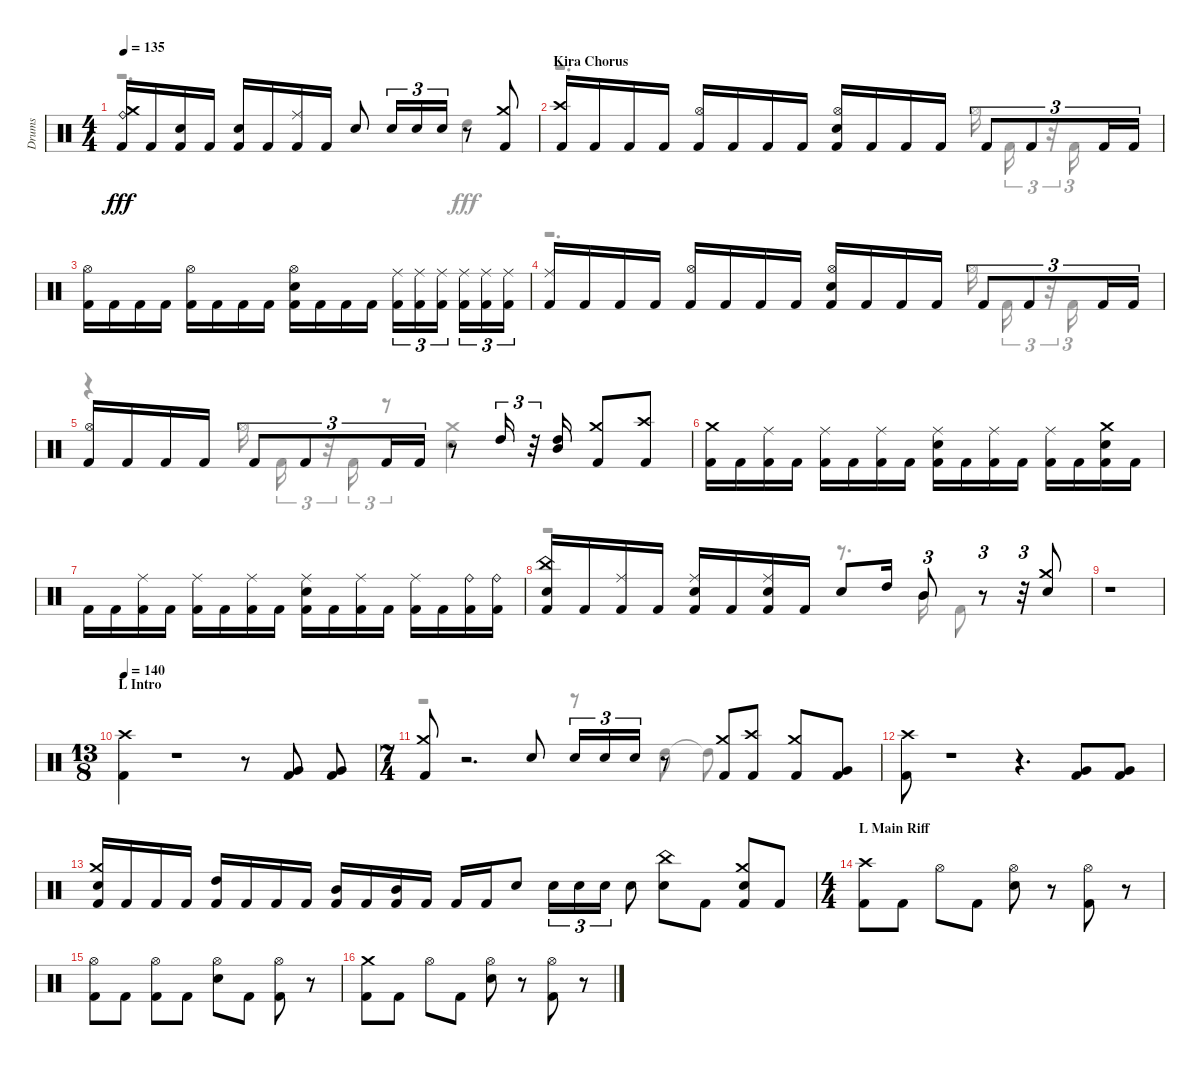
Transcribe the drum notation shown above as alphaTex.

\track ("Drums" "Drums") {instrument percussion}
\staff {score}
\articulation defaults
\voice
\ts (4 4)
\tempo 135
\clef neutral
\ks aminor
("Ride (bell)" "Kick (hit) 2" "Crash medium (hit)").16{dy fff} "Kick (hit) 2".16 ("Kick (hit) 2" "Snare (hit) 2").16 "Kick (hit) 2".16 ("Snare (hit) 2" "Kick (hit) 2").16 "Kick (hit) 2".16 ("Kick (hit) 2" "Ride (middle)").16 "Kick (hit) 2".16 "Snare (hit) 2".8 "Snare (hit) 2".16{tu (3 2)} "Snare (hit) 2".16{tu (3 2)} "Snare (hit) 2".16{tu (3 2)} r.8 ("Crash medium (hit)" "Kick (hit) 2").8 |
\section ("" "Kira Chorus")
("Kick (hit) 2" "Crash high (hit)").16 "Kick (hit) 2".16 "Kick (hit) 2".16 "Kick (hit) 2".16 ("Hi-Hat (open)" "Kick (hit) 2").16 "Kick (hit) 2".16 "Kick (hit) 2".16 "Kick (hit) 2".16 ("Kick (hit) 2" "Snare (hit) 2" "Hi-Hat (open)").16 "Kick (hit) 2".16 "Kick (hit) 2".16 "Kick (hit) 2".16 "Kick (hit) 2".8{tu (3 2)} "Kick (hit) 2".8{tu (3 2)} "Kick (hit) 2".16{tu (3 2)} "Kick (hit) 2".16{tu (3 2)} |
("Hi-Hat (open)" "Kick (hit) 2").16 "Kick (hit) 2".16 "Kick (hit) 2".16 "Kick (hit) 2".16 ("Hi-Hat (open)" "Kick (hit) 2").16 "Kick (hit) 2".16 "Kick (hit) 2".16 "Kick (hit) 2".16 ("Hi-Hat (open)" "Snare (hit) 2" "Kick (hit) 2").16 "Kick (hit) 2".16 "Kick (hit) 2".16 "Kick (hit) 2".16 ("Ride (middle)" "Kick (hit) 2").16{tu (3 2)} ("Ride (middle)" "Kick (hit) 2").16{tu (3 2)} ("Kick (hit) 2" "Ride (middle)").16{tu (3 2)} ("Ride (middle)" "Kick (hit) 2").16{tu (3 2)} ("Kick (hit) 2" "Ride (middle)").16{tu (3 2)} ("Ride (middle)" "Kick (hit) 2").16{tu (3 2)} |
("Ride (middle)" "Kick (hit) 2").16 "Kick (hit) 2".16 "Kick (hit) 2".16 "Kick (hit) 2".16 ("Kick (hit) 2" "Hi-Hat (open)").16 "Kick (hit) 2".16 "Kick (hit) 2".16 "Kick (hit) 2".16 ("Hi-Hat (open)" "Snare (hit) 2" "Kick (hit) 2").16 "Kick (hit) 2".16 "Kick (hit) 2".16 "Kick (hit) 2".16 "Kick (hit) 2".8{tu (3 2)} "Kick (hit) 2".8{tu (3 2)} "Kick (hit) 2".16{tu (3 2)} "Kick (hit) 2".16{tu (3 2)} |
("Kick (hit) 2" "Hi-Hat (open)").16 "Kick (hit) 2".16 "Kick (hit) 2".16 "Kick (hit) 2".16 "Kick (hit) 2".8{tu (3 2)} "Kick (hit) 2".8{tu (3 2)} "Kick (hit) 2".16{tu (3 2)} "Kick (hit) 2".16{tu (3 2)} r.8 "High Tom (hit)".16{tu (3 2)} r.32{tu (3 2)} ("High Tom (hit)" "Mid Tom (hit)").16 ("Kick (hit) 2" "Crash medium (hit)").8 ("Crash high (hit)" "Kick (hit) 2").8 |
("Kick (hit) 2" "Crash medium (hit)").16 "Kick (hit) 2".16 ("Kick (hit) 2" "Ride (middle)").16 "Kick (hit) 2".16 ("Kick (hit) 2" "Ride (middle)").16 "Kick (hit) 2".16 ("Kick (hit) 2" "Ride (middle)").16 "Kick (hit) 2".16 ("Ride (middle)" "Snare (hit) 2" "Kick (hit) 2").16 "Kick (hit) 2".16 ("Kick (hit) 2" "Ride (middle)").16 "Kick (hit) 2".16 ("Ride (middle)" "Kick (hit) 2").16 "Kick (hit) 2".16 ("Kick (hit) 2" "Crash medium (hit)" "Snare (hit) 2").16 "Kick (hit) 2".16 |
"Kick (hit) 2".16 "Kick (hit) 2".16 ("Kick (hit) 2" "Ride (middle)").16 "Kick (hit) 2".16 ("Ride (middle)" "Kick (hit) 2").16 "Kick (hit) 2".16 ("Ride (middle)" "Kick (hit) 2").16 "Kick (hit) 2".16 ("Ride (middle)" "Snare (hit) 2" "Kick (hit) 2").16 "Kick (hit) 2".16 ("Ride (middle)" "Kick (hit) 2").16 "Kick (hit) 2".16 ("Kick (hit) 2" "Ride (middle)").16 "Kick (hit) 2".16 ("Ride (bell)" "Kick (hit) 2").16 ("Kick (hit) 2" "Ride (bell)").16 |
("Snare (hit) 2" "China (hit)" "Kick (hit) 2").16 "Kick (hit) 2".16 ("Kick (hit) 2" "Ride (middle)").16 "Kick (hit) 2".16 ("Kick (hit) 2" "Snare (hit) 2" "Ride (middle)").16 "Kick (hit) 2".16 ("Ride (middle)" "Snare (hit) 2" "Kick (hit) 2").16 "Kick (hit) 2".16 "Snare (hit) 2".8 "High Tom (hit)".16 "Mid Tom (hit)".8{tu (3 2)} r.8{tu (3 2)} r.32{tu (3 2)} ("Crash medium (hit)" "Snare (hit) 2").8 |
r.1 |
\ts (13 8)
\section ("" "L Intro")
\tempo 140
("Kick (hit) 2" "Crash high (hit)").4 r.1 r.8 ("Very Low Tom (hit)" "Kick (hit) 2").8 ("Kick (hit) 2" "Very Low Tom (hit)").8 |
\ts (7 4)
("Kick (hit) 2" "Crash medium (hit)").8 r.2{d} "Snare (hit) 2".8 "Snare (hit) 2".16{tu (3 2)} "Snare (hit) 2".16{tu (3 2)} "Snare (hit) 2".16{tu (3 2)} r.8 ("Kick (hit) 2" "Crash medium (hit)").8 ("Kick (hit) 2" "Crash high (hit)").8 ("Crash medium (hit)" "Kick (hit) 2").8 ("Very Low Tom (hit)" "Kick (hit) 2").8 |
("Crash high (hit)" "Kick (hit) 2").8 r.1 r.4{d} ("Kick (hit) 2" "Very Low Tom (hit)").8 ("Kick (hit) 2" "Very Low Tom (hit)").8 |
("Kick (hit) 2" "Snare (hit) 2" "Crash medium (hit)").16 "Kick (hit) 2".16 "Kick (hit) 2".16 "Kick (hit) 2".16 ("High Tom (hit)" "Kick (hit) 2").16 "Kick (hit) 2".16 "Kick (hit) 2".16 "Kick (hit) 2".16 ("Mid Tom (hit)" "Kick (hit) 2").16 "Kick (hit) 2".16 ("Kick (hit) 2" "Mid Tom (hit)").16 "Kick (hit) 2".16 "Kick (hit) 2".16 "Kick (hit) 2".16 "Snare (hit) 2".8 "Snare (hit) 2".16{tu (3 2)} "Snare (hit) 2".16{tu (3 2)} "Snare (hit) 2".16{tu (3 2)} "Snare (hit) 2".8 ("China (hit)" "Snare (hit) 2").8 "Kick (hit) 2".8 ("Snare (hit) 2" "Kick (hit) 2" "Crash medium (hit)").8 "Kick (hit) 2".8 |
\ts (4 4)
\section ("" "L Main Riff")
("Kick (hit) 2" "Crash high (hit)").8 "Kick (hit) 2".8 "Hi-Hat (open)".8 "Kick (hit) 2".8 ("Hi-Hat (open)" "Snare (hit) 2").8 r.8 ("Kick (hit) 2" "Hi-Hat (open)").8 r.8 |
("Hi-Hat (open)" "Kick (hit) 2").8 "Kick (hit) 2".8 ("Kick (hit) 2" "Hi-Hat (open)").8 "Kick (hit) 2".8 ("Hi-Hat (open)" "Snare (hit) 2").8 "Kick (hit) 2".8 ("Hi-Hat (open)" "Kick (hit) 2").8 r.8 |
("Crash medium (hit)" "Kick (hit) 2").8 "Kick (hit) 2".8 "Hi-Hat (open)".8 "Kick (hit) 2".8 ("Snare (hit) 2" "Hi-Hat (open)").8 r.8 ("Kick (hit) 2" "Hi-Hat (open)").8 r.8
\voice
\clef neutral
\ottava regular
\simile none
\ks aminor
r.2{d dy fff} "High Tom (hit)".4 |
r.2{d} "Hi-Hat (open)".16 "Kick (hit) 2".16{tu (3 2)} r.32{tu (3 2)} "Kick (hit) 2".16{tu (3 2)} |
|
r.2{d} "Hi-Hat (open)".16 "Kick (hit) 2".16{tu (3 2)} r.32{tu (3 2)} "Kick (hit) 2".16{tu (3 2)} |
r.4 "Hi-Hat (open)".16 "Kick (hit) 2".16{tu (3 2)} r.32{tu (3 2)} "Kick (hit) 2".16{tu (3 2)} r.8{tu (3 2)} ("Crash medium (hit)" "Snare (hit) 2").4 |
|
|
r.2 r.8{d} "Mid Tom (hit)".16 "Kick (hit) 2".8 |
|
|
r.1 r.8 "High Tom (hit)".8 "High Tom (hit)"{t}.8 |
|
|
|
|
